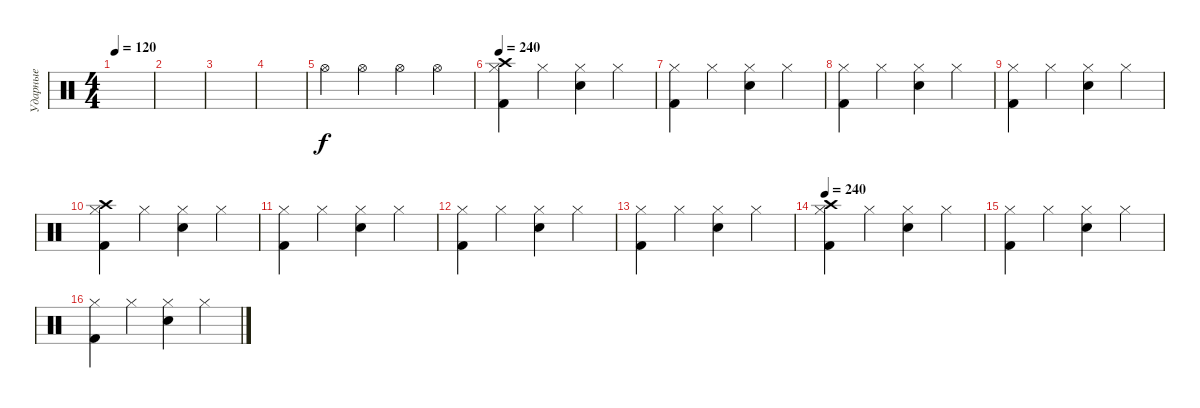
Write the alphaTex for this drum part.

\track ("Ударные" "Ударные") {instrument percussion}
\staff {score}
\articulation defaults
\ts (4 4)
\tempo 120
\clef neutral
\ks c
|
|
|
|
"Hi-Hat (open)".4 "Hi-Hat (open)".4 "Hi-Hat (open)".4 "Hi-Hat (open)".4 |
\tempo 240
("Kick (hit) 2" "Hi-Hat (closed)" "Crash high (hit)").4 "Hi-Hat (closed)".4 ("Electric Snare (hit)" "Hi-Hat (closed)").4 "Hi-Hat (closed)".4 |
("Kick (hit) 2" "Hi-Hat (closed)").4 "Hi-Hat (closed)".4 ("Electric Snare (hit)" "Hi-Hat (closed)").4 "Hi-Hat (closed)".4 |
("Kick (hit) 2" "Hi-Hat (closed)").4 "Hi-Hat (closed)".4 ("Electric Snare (hit)" "Hi-Hat (closed)").4 "Hi-Hat (closed)".4 |
("Kick (hit) 2" "Hi-Hat (closed)").4 "Hi-Hat (closed)".4 ("Electric Snare (hit)" "Hi-Hat (closed)").4 "Hi-Hat (closed)".4 |
("Kick (hit) 2" "Hi-Hat (closed)" "Crash high (hit)").4 "Hi-Hat (closed)".4 ("Electric Snare (hit)" "Hi-Hat (closed)").4 "Hi-Hat (closed)".4 |
("Kick (hit) 2" "Hi-Hat (closed)").4 "Hi-Hat (closed)".4 ("Electric Snare (hit)" "Hi-Hat (closed)").4 "Hi-Hat (closed)".4 |
("Kick (hit) 2" "Hi-Hat (closed)").4 "Hi-Hat (closed)".4 ("Electric Snare (hit)" "Hi-Hat (closed)").4 "Hi-Hat (closed)".4 |
("Kick (hit) 2" "Hi-Hat (closed)").4 "Hi-Hat (closed)".4 ("Electric Snare (hit)" "Hi-Hat (closed)").4 "Hi-Hat (closed)".4 |
\tempo 240
("Kick (hit) 2" "Hi-Hat (closed)" "Crash high (hit)").4 "Hi-Hat (closed)".4 ("Electric Snare (hit)" "Hi-Hat (closed)").4 "Hi-Hat (closed)".4 |
("Kick (hit) 2" "Hi-Hat (closed)").4 "Hi-Hat (closed)".4 ("Electric Snare (hit)" "Hi-Hat (closed)").4 "Hi-Hat (closed)".4 |
("Kick (hit) 2" "Hi-Hat (closed)").4 "Hi-Hat (closed)".4 ("Electric Snare (hit)" "Hi-Hat (closed)").4 "Hi-Hat (closed)".4
